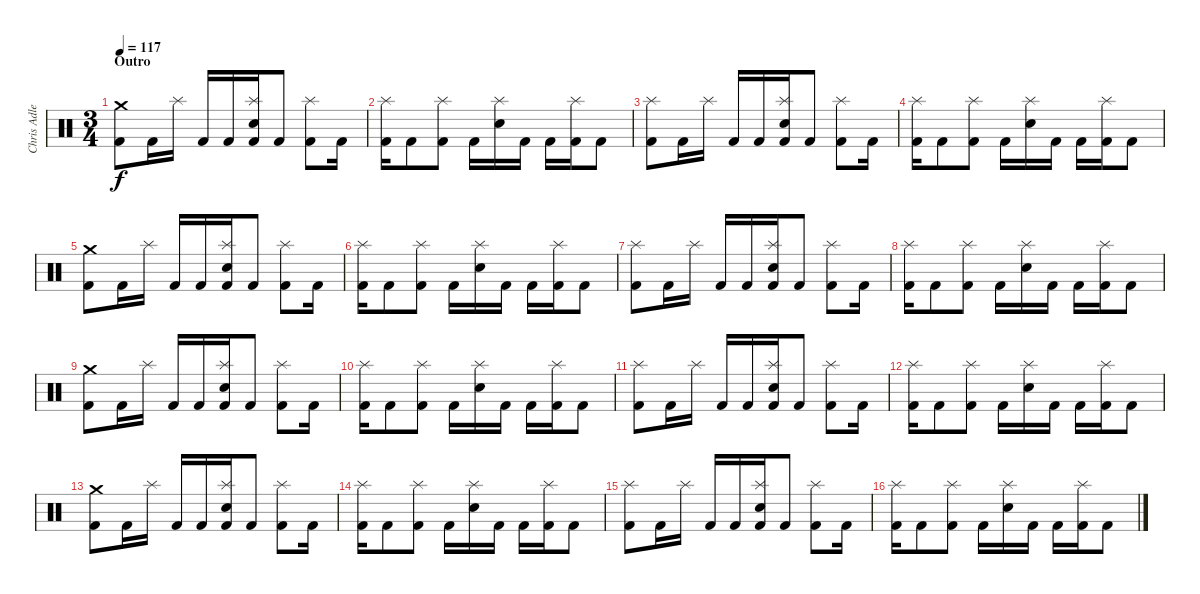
\track ("Chris Adler" "Chris Adle") {instrument percussion}
\staff {score}
\articulation defaults
\ts (3 4)
\section ("" "Outro")
\tempo 117
\clef neutral
\ks c
("Crash medium (hit)" "Kick (hit) 2").8{dy f} "Kick (hit) 2".16 "Splash (hit)".16 "Kick (hit) 2".16 "Kick (hit) 2".16 ("Splash (hit)" "Electric Snare (hit)" "Kick (hit) 2").16 "Kick (hit) 2".8 ("Splash (hit)" "Kick (hit) 2").8 "Kick (hit) 2".16 |
("Splash (hit)" "Kick (hit) 2").16 "Kick (hit) 2".8 ("Splash (hit)" "Kick (hit) 2").8 "Kick (hit) 2".16 ("Splash (hit)" "Electric Snare (hit)").16 "Kick (hit) 2".16 "Kick (hit) 2".16 ("Splash (hit)" "Kick (hit) 2").16 "Kick (hit) 2".8 |
("Splash (hit)" "Kick (hit) 2").8 "Kick (hit) 2".16 "Splash (hit)".16 "Kick (hit) 2".16 "Kick (hit) 2".16 ("Splash (hit)" "Electric Snare (hit)" "Kick (hit) 2").16 "Kick (hit) 2".8 ("Splash (hit)" "Kick (hit) 2").8 "Kick (hit) 2".16 |
("Splash (hit)" "Kick (hit) 2").16 "Kick (hit) 2".8 ("Splash (hit)" "Kick (hit) 2").8 "Kick (hit) 2".16 ("Splash (hit)" "Electric Snare (hit)").16 "Kick (hit) 2".16 "Kick (hit) 2".16 ("Splash (hit)" "Kick (hit) 2").16 "Kick (hit) 2".8 |
("Crash medium (hit)" "Kick (hit) 2").8 "Kick (hit) 2".16 "Splash (hit)".16 "Kick (hit) 2".16 "Kick (hit) 2".16 ("Splash (hit)" "Electric Snare (hit)" "Kick (hit) 2").16 "Kick (hit) 2".8 ("Splash (hit)" "Kick (hit) 2").8 "Kick (hit) 2".16 |
("Splash (hit)" "Kick (hit) 2").16 "Kick (hit) 2".8 ("Splash (hit)" "Kick (hit) 2").8 "Kick (hit) 2".16 ("Splash (hit)" "Electric Snare (hit)").16 "Kick (hit) 2".16 "Kick (hit) 2".16 ("Splash (hit)" "Kick (hit) 2").16 "Kick (hit) 2".8 |
("Splash (hit)" "Kick (hit) 2").8 "Kick (hit) 2".16 "Splash (hit)".16 "Kick (hit) 2".16 "Kick (hit) 2".16 ("Splash (hit)" "Electric Snare (hit)" "Kick (hit) 2").16 "Kick (hit) 2".8 ("Splash (hit)" "Kick (hit) 2").8 "Kick (hit) 2".16 |
("Splash (hit)" "Kick (hit) 2").16 "Kick (hit) 2".8 ("Splash (hit)" "Kick (hit) 2").8 "Kick (hit) 2".16 ("Splash (hit)" "Electric Snare (hit)").16 "Kick (hit) 2".16 "Kick (hit) 2".16 ("Splash (hit)" "Kick (hit) 2").16 "Kick (hit) 2".8 |
("Crash medium (hit)" "Kick (hit) 2").8 "Kick (hit) 2".16 "Splash (hit)".16 "Kick (hit) 2".16 "Kick (hit) 2".16 ("Splash (hit)" "Electric Snare (hit)" "Kick (hit) 2").16 "Kick (hit) 2".8 ("Splash (hit)" "Kick (hit) 2").8 "Kick (hit) 2".16 |
("Splash (hit)" "Kick (hit) 2").16 "Kick (hit) 2".8 ("Splash (hit)" "Kick (hit) 2").8 "Kick (hit) 2".16 ("Splash (hit)" "Electric Snare (hit)").16 "Kick (hit) 2".16 "Kick (hit) 2".16 ("Splash (hit)" "Kick (hit) 2").16 "Kick (hit) 2".8 |
("Splash (hit)" "Kick (hit) 2").8 "Kick (hit) 2".16 "Splash (hit)".16 "Kick (hit) 2".16 "Kick (hit) 2".16 ("Splash (hit)" "Electric Snare (hit)" "Kick (hit) 2").16 "Kick (hit) 2".8 ("Splash (hit)" "Kick (hit) 2").8 "Kick (hit) 2".16 |
("Splash (hit)" "Kick (hit) 2").16 "Kick (hit) 2".8 ("Splash (hit)" "Kick (hit) 2").8 "Kick (hit) 2".16 ("Splash (hit)" "Electric Snare (hit)").16 "Kick (hit) 2".16 "Kick (hit) 2".16 ("Splash (hit)" "Kick (hit) 2").16 "Kick (hit) 2".8 |
("Crash medium (hit)" "Kick (hit) 2").8 "Kick (hit) 2".16 "Splash (hit)".16 "Kick (hit) 2".16 "Kick (hit) 2".16 ("Splash (hit)" "Electric Snare (hit)" "Kick (hit) 2").16 "Kick (hit) 2".8 ("Splash (hit)" "Kick (hit) 2").8 "Kick (hit) 2".16 |
("Splash (hit)" "Kick (hit) 2").16 "Kick (hit) 2".8 ("Splash (hit)" "Kick (hit) 2").8 "Kick (hit) 2".16 ("Splash (hit)" "Electric Snare (hit)").16 "Kick (hit) 2".16 "Kick (hit) 2".16 ("Splash (hit)" "Kick (hit) 2").16 "Kick (hit) 2".8 |
("Splash (hit)" "Kick (hit) 2").8 "Kick (hit) 2".16 "Splash (hit)".16 "Kick (hit) 2".16 "Kick (hit) 2".16 ("Splash (hit)" "Electric Snare (hit)" "Kick (hit) 2").16 "Kick (hit) 2".8 ("Splash (hit)" "Kick (hit) 2").8 "Kick (hit) 2".16 |
("Splash (hit)" "Kick (hit) 2").16 "Kick (hit) 2".8 ("Splash (hit)" "Kick (hit) 2").8 "Kick (hit) 2".16 ("Splash (hit)" "Electric Snare (hit)").16 "Kick (hit) 2".16 "Kick (hit) 2".16 ("Splash (hit)" "Kick (hit) 2").16 "Kick (hit) 2".8
